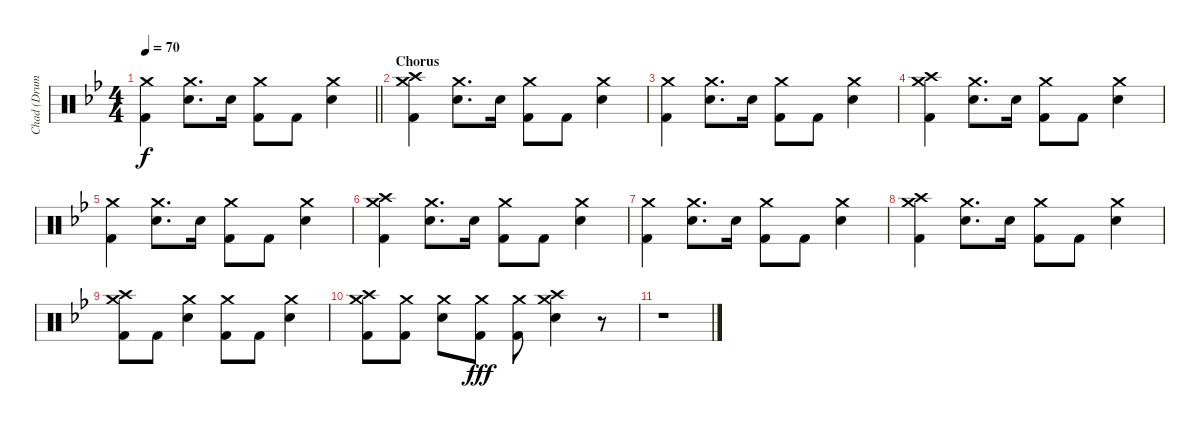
\track ("Chad (Drums)" "Chad (Drum") {instrument percussion}
\staff {score}
\articulation defaults
\ts (4 4)
\tempo 70
\clef neutral
\barLineRight lightlight
\ks bb
("Crash medium (hit)" "Kick (hit) 2").4{dy f} ("Crash medium (hit)" "Snare (hit) 2").8{d} "Snare (hit) 2".16 ("Crash medium (hit)" "Kick (hit) 2").8 "Kick (hit) 2".8 ("Crash medium (hit)" "Snare (hit) 2").4 |
\section ("" "Chorus")
("Crash medium (hit)" "Crash high (hit)" "Kick (hit) 2").4 ("Crash medium (hit)" "Snare (hit) 2").8{d} "Snare (hit) 2".16 ("Crash medium (hit)" "Kick (hit) 2").8 "Kick (hit) 2".8 ("Crash medium (hit)" "Snare (hit) 2").4 |
("Crash medium (hit)" "Kick (hit) 2").4 ("Crash medium (hit)" "Snare (hit) 2").8{d} "Snare (hit) 2".16 ("Crash medium (hit)" "Kick (hit) 2").8 "Kick (hit) 2".8 ("Crash medium (hit)" "Snare (hit) 2").4 |
("Crash medium (hit)" "Crash high (hit)" "Kick (hit) 2").4 ("Crash medium (hit)" "Snare (hit) 2").8{d} "Snare (hit) 2".16 ("Crash medium (hit)" "Kick (hit) 2").8 "Kick (hit) 2".8 ("Crash medium (hit)" "Snare (hit) 2").4 |
("Crash medium (hit)" "Kick (hit) 2").4 ("Crash medium (hit)" "Snare (hit) 2").8{d} "Snare (hit) 2".16 ("Crash medium (hit)" "Kick (hit) 2").8 "Kick (hit) 2".8 ("Crash medium (hit)" "Snare (hit) 2").4 |
("Crash medium (hit)" "Crash high (hit)" "Kick (hit) 2").4 ("Crash medium (hit)" "Snare (hit) 2").8{d} "Snare (hit) 2".16 ("Crash medium (hit)" "Kick (hit) 2").8 "Kick (hit) 2".8 ("Crash medium (hit)" "Snare (hit) 2").4 |
("Crash medium (hit)" "Kick (hit) 2").4 ("Crash medium (hit)" "Snare (hit) 2").8{d} "Snare (hit) 2".16 ("Crash medium (hit)" "Kick (hit) 2").8 "Kick (hit) 2".8 ("Crash medium (hit)" "Snare (hit) 2").4 |
("Crash medium (hit)" "Crash high (hit)" "Kick (hit) 2").4 ("Crash medium (hit)" "Snare (hit) 2").8{d} "Snare (hit) 2".16 ("Crash medium (hit)" "Kick (hit) 2").8 "Kick (hit) 2".8 ("Crash medium (hit)" "Snare (hit) 2").4 |
("Crash medium (hit)" "Crash high (hit)" "Kick (hit) 2").8 "Kick (hit) 2".8 ("Crash medium (hit)" "Snare (hit) 2").4 ("Crash medium (hit)" "Kick (hit) 2").8 "Kick (hit) 2".8 ("Crash medium (hit)" "Snare (hit) 2").4 |
("Crash medium (hit)" "Crash high (hit)" "Kick (hit) 2").8 ("Crash medium (hit)" "Kick (hit) 2").8 ("Crash medium (hit)" "Snare (hit) 2").8 ("Crash medium (hit)" "Kick (hit) 2").8{dy fff} ("Crash medium (hit)" "Kick (hit) 2").8 ("Crash medium (hit)" "Crash high (hit)" "Snare (hit) 2").4 r.8 |
r.1
